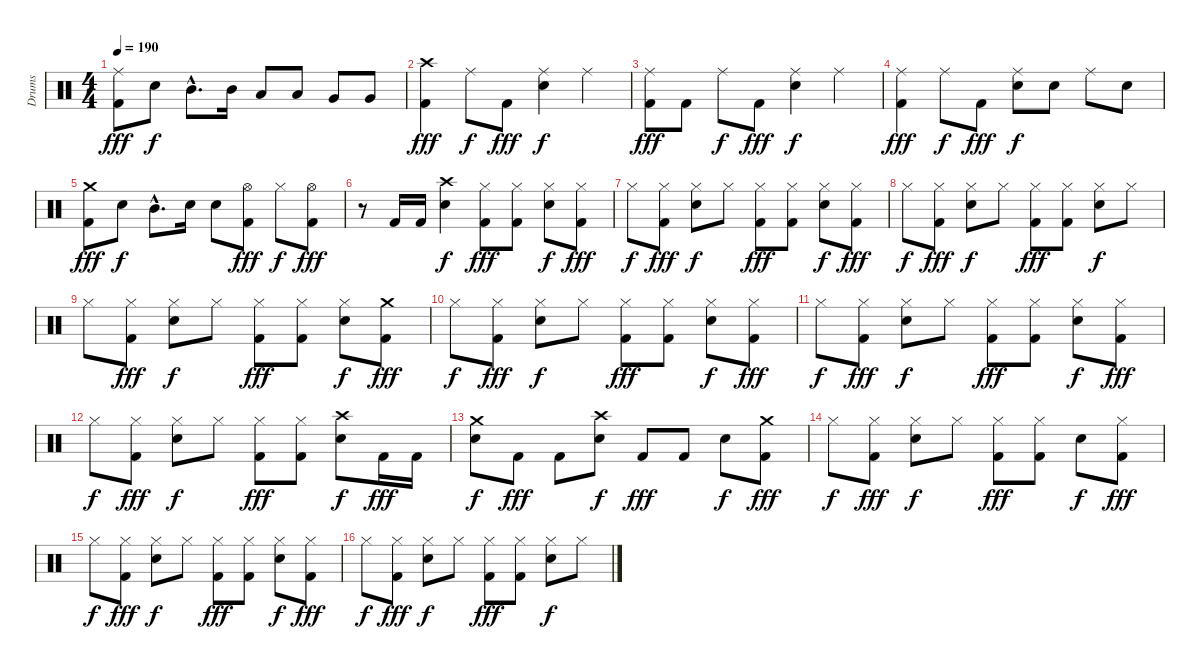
\track ("Drums" "Drums") {instrument percussion}
\staff {score}
\articulation defaults
\ts (4 4)
\tempo 190
\clef neutral
\ks c
("Ride (middle)" "Kick (hit) 2").8{dy fff} "Electric Snare (hit)".8{dy f} "Mid Tom (hit)"{hac}.8{d} "Mid Tom (hit)".16 "Low Tom (hit)".8 "Low Tom (hit)".8 "Very Low Tom (hit)".8 "Very Low Tom (hit)".8 |
("Crash high (hit)" "Kick (hit) 2").4{dy fff} "Ride (middle)".8{dy f} "Kick (hit) 2".8{dy fff} ("Ride (middle)" "Electric Snare (hit)").4{dy f} "Ride (middle)".4 |
("Ride (middle)" "Kick (hit) 2").8{dy fff} "Kick (hit) 2".8 "Ride (middle)".8{dy f} "Kick (hit) 2".8{dy fff} ("Ride (middle)" "Electric Snare (hit)").4{dy f} "Ride (middle)".4 |
("Ride (middle)" "Kick (hit) 2").4{dy fff} "Ride (middle)".8{dy f} "Kick (hit) 2".8{dy fff} ("Ride (middle)" "Electric Snare (hit)").8{dy f} "Electric Snare (hit)".8 "Ride (middle)".8 "Electric Snare (hit)".8 |
("Crash medium (hit)" "Kick (hit) 2").8{dy fff} "Electric Snare (hit)".8{dy f} "Mid Tom (hit)"{hac}.8{d} "Electric Snare (hit)".16 "Electric Snare (hit)".8 ("Hi-Hat (open)" "Kick (hit) 2").8{dy fff} "Hi-Hat (closed)".8{dy f} ("Hi-Hat (open)" "Kick (hit) 2").8{dy fff} |
r.8 "Kick (hit) 2".16 "Kick (hit) 2".16 ("Crash high (hit)" "Electric Snare (hit)").4{dy f} ("Hi-Hat (closed)" "Kick (hit) 2").8{dy fff} ("Hi-Hat (closed)" "Kick (hit) 2").8 ("Hi-Hat (closed)" "Electric Snare (hit)").8{dy f} ("Hi-Hat (closed)" "Kick (hit) 2").8{dy fff} |
"Hi-Hat (closed)".8{dy f} ("Hi-Hat (closed)" "Kick (hit) 2").8{dy fff} ("Hi-Hat (closed)" "Electric Snare (hit)").8{dy f} "Hi-Hat (closed)".8 ("Hi-Hat (closed)" "Kick (hit) 2").8{dy fff} ("Hi-Hat (closed)" "Kick (hit) 2").8 ("Hi-Hat (closed)" "Electric Snare (hit)").8{dy f} ("Hi-Hat (closed)" "Kick (hit) 2").8{dy fff} |
"Hi-Hat (closed)".8{dy f} ("Hi-Hat (closed)" "Kick (hit) 2").8{dy fff} ("Hi-Hat (closed)" "Electric Snare (hit)").8{dy f} "Hi-Hat (closed)".8 ("Hi-Hat (closed)" "Kick (hit) 2").8{dy fff} ("Hi-Hat (closed)" "Kick (hit) 2").8 ("Hi-Hat (closed)" "Electric Snare (hit)").8{dy f} "Hi-Hat (closed)".8 |
"Hi-Hat (closed)".8 ("Hi-Hat (closed)" "Kick (hit) 2").8{dy fff} ("Hi-Hat (closed)" "Electric Snare (hit)").8{dy f} "Hi-Hat (closed)".8 ("Hi-Hat (closed)" "Kick (hit) 2").8{dy fff} ("Hi-Hat (closed)" "Kick (hit) 2").8 ("Hi-Hat (closed)" "Electric Snare (hit)").8{dy f} ("Crash medium (hit)" "Kick (hit) 2").8{dy fff} |
"Hi-Hat (closed)".8{dy f} ("Hi-Hat (closed)" "Kick (hit) 2").8{dy fff} ("Hi-Hat (closed)" "Electric Snare (hit)").8{dy f} "Hi-Hat (closed)".8 ("Hi-Hat (closed)" "Kick (hit) 2").8{dy fff} ("Hi-Hat (closed)" "Kick (hit) 2").8 ("Hi-Hat (closed)" "Electric Snare (hit)").8{dy f} ("Hi-Hat (closed)" "Kick (hit) 2").8{dy fff} |
"Hi-Hat (closed)".8{dy f} ("Hi-Hat (closed)" "Kick (hit) 2").8{dy fff} ("Hi-Hat (closed)" "Electric Snare (hit)").8{dy f} "Hi-Hat (closed)".8 ("Hi-Hat (closed)" "Kick (hit) 2").8{dy fff} ("Hi-Hat (closed)" "Kick (hit) 2").8 ("Hi-Hat (closed)" "Electric Snare (hit)").8{dy f} ("Hi-Hat (closed)" "Kick (hit) 2").8{dy fff} |
"Hi-Hat (closed)".8{dy f} ("Hi-Hat (closed)" "Kick (hit) 2").8{dy fff} ("Hi-Hat (closed)" "Electric Snare (hit)").8{dy f} "Hi-Hat (closed)".8 ("Hi-Hat (closed)" "Kick (hit) 2").8{dy fff} ("Hi-Hat (closed)" "Kick (hit) 2").8 ("Crash high (hit)" "Electric Snare (hit)").8{dy f} "Kick (hit) 2".16{dy fff} "Kick (hit) 2".16 |
("Crash medium (hit)" "Electric Snare (hit)").8{dy f} "Kick (hit) 2".8{dy fff} "Kick (hit) 2".8 ("Crash high (hit)" "Electric Snare (hit)").8{dy f} "Kick (hit) 2".8{dy fff} "Kick (hit) 2".8 "Electric Snare (hit)".8{dy f} ("Crash medium (hit)" "Kick (hit) 2").8{dy fff} |
"Hi-Hat (closed)".8{dy f} ("Hi-Hat (closed)" "Kick (hit) 2").8{dy fff} ("Hi-Hat (closed)" "Electric Snare (hit)").8{dy f} "Hi-Hat (closed)".8 ("Hi-Hat (closed)" "Kick (hit) 2").8{dy fff} ("Hi-Hat (closed)" "Kick (hit) 2").8 "Electric Snare (hit)".8{dy f} ("Hi-Hat (closed)" "Kick (hit) 2").8{dy fff} |
"Hi-Hat (closed)".8{dy f} ("Hi-Hat (closed)" "Kick (hit) 2").8{dy fff} ("Hi-Hat (closed)" "Electric Snare (hit)").8{dy f} "Hi-Hat (closed)".8 ("Hi-Hat (closed)" "Kick (hit) 2").8{dy fff} ("Hi-Hat (closed)" "Kick (hit) 2").8 ("Hi-Hat (closed)" "Electric Snare (hit)").8{dy f} ("Hi-Hat (closed)" "Kick (hit) 2").8{dy fff} |
"Hi-Hat (closed)".8{dy f} ("Hi-Hat (closed)" "Kick (hit) 2").8{dy fff} ("Hi-Hat (closed)" "Electric Snare (hit)").8{dy f} "Hi-Hat (closed)".8 ("Hi-Hat (closed)" "Kick (hit) 2").8{dy fff} ("Hi-Hat (closed)" "Kick (hit) 2").8 ("Hi-Hat (closed)" "Electric Snare (hit)").8{dy f} "Hi-Hat (closed)".8
